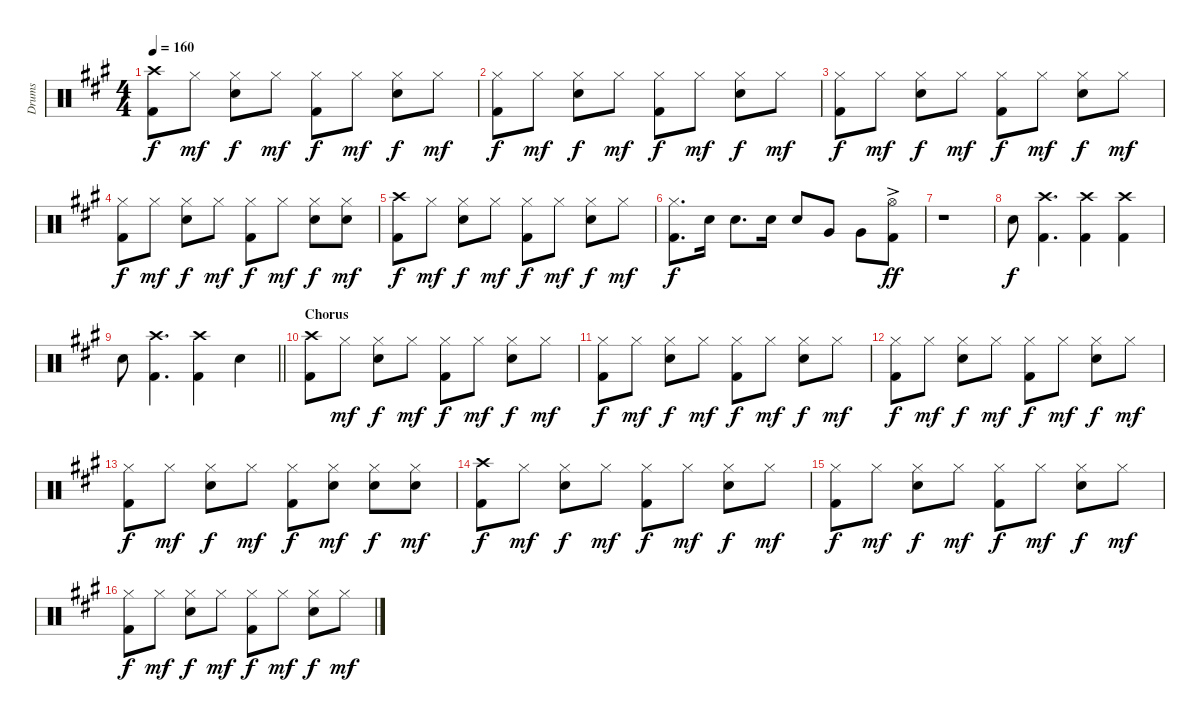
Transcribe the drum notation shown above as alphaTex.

\track ("Drums" "Drums") {instrument percussion}
\staff {score}
\articulation defaults
\ts (4 4)
\tempo 160
\clef neutral
\ks a
("Crash high (hit)" "Kick (hit) 2").8{dy f} "Hi-Hat (closed)".8{dy mf} ("Hi-Hat (closed)" "Electric Snare (hit)").8{dy f} "Hi-Hat (closed)".8{dy mf} ("Hi-Hat (closed)" "Kick (hit) 2").8{dy f} "Hi-Hat (closed)".8{dy mf} ("Hi-Hat (closed)" "Electric Snare (hit)").8{dy f} "Hi-Hat (closed)".8{dy mf} |
("Hi-Hat (closed)" "Kick (hit) 2").8{dy f} "Hi-Hat (closed)".8{dy mf} ("Hi-Hat (closed)" "Electric Snare (hit)").8{dy f} "Hi-Hat (closed)".8{dy mf} ("Hi-Hat (closed)" "Kick (hit) 2").8{dy f} "Hi-Hat (closed)".8{dy mf} ("Hi-Hat (closed)" "Electric Snare (hit)").8{dy f} "Hi-Hat (closed)".8{dy mf} |
("Hi-Hat (closed)" "Kick (hit) 2").8{dy f} "Hi-Hat (closed)".8{dy mf} ("Hi-Hat (closed)" "Electric Snare (hit)").8{dy f} "Hi-Hat (closed)".8{dy mf} ("Hi-Hat (closed)" "Kick (hit) 2").8{dy f} "Hi-Hat (closed)".8{dy mf} ("Hi-Hat (closed)" "Electric Snare (hit)").8{dy f} "Hi-Hat (closed)".8{dy mf} |
("Hi-Hat (closed)" "Kick (hit) 2").8{dy f} "Hi-Hat (closed)".8{dy mf} ("Hi-Hat (closed)" "Electric Snare (hit)").8{dy f} "Hi-Hat (closed)".8{dy mf} ("Hi-Hat (closed)" "Kick (hit) 2").8{dy f} "Hi-Hat (closed)".8{dy mf} ("Hi-Hat (closed)" "Electric Snare (hit)").8{dy f} ("Hi-Hat (closed)" "Electric Snare (hit)").8{dy mf} |
("Crash high (hit)" "Kick (hit) 2").8{dy f} "Hi-Hat (closed)".8{dy mf} ("Hi-Hat (closed)" "Electric Snare (hit)").8{dy f} "Hi-Hat (closed)".8{dy mf} ("Hi-Hat (closed)" "Kick (hit) 2").8{dy f} "Hi-Hat (closed)".8{dy mf} ("Hi-Hat (closed)" "Electric Snare (hit)").8{dy f} "Hi-Hat (closed)".8{dy mf} |
("Hi-Hat (closed)" "Kick (hit) 2").8{d dy f} "Electric Snare (hit)".16 "Electric Snare (hit)".8{d} "Electric Snare (hit)".16 "Electric Snare (hit)".8 "Very Low Tom (hit)".8 "Very Low Tom (hit)".8 ("Hi-Hat (open)"{ac} "Kick (hit) 2"{ac}).8{dy ff} |
r.1 |
"Electric Snare (hit)".8{dy f} ("Crash high (hit)" "Kick (hit) 2").4{d} ("Crash high (hit)" "Kick (hit) 2").4 ("Crash high (hit)" "Kick (hit) 2").4 |
\barLineRight lightlight "Electric Snare (hit)".8
("Crash high (hit)" "Kick (hit) 2").4{d} ("Crash high (hit)" "Kick (hit) 2").4 "Electric Snare (hit)".4 |
\section ("" "Chorus")
("Crash high (hit)" "Kick (hit) 2").8 "Hi-Hat (closed)".8{dy mf} ("Hi-Hat (closed)" "Electric Snare (hit)").8{dy f} "Hi-Hat (closed)".8{dy mf} ("Hi-Hat (closed)" "Kick (hit) 2").8{dy f} "Hi-Hat (closed)".8{dy mf} ("Hi-Hat (closed)" "Electric Snare (hit)").8{dy f} "Hi-Hat (closed)".8{dy mf} |
("Hi-Hat (closed)" "Kick (hit) 2").8{dy f} "Hi-Hat (closed)".8{dy mf} ("Hi-Hat (closed)" "Electric Snare (hit)").8{dy f} "Hi-Hat (closed)".8{dy mf} ("Hi-Hat (closed)" "Kick (hit) 2").8{dy f} "Hi-Hat (closed)".8{dy mf} ("Hi-Hat (closed)" "Electric Snare (hit)").8{dy f} "Hi-Hat (closed)".8{dy mf} |
("Hi-Hat (closed)" "Kick (hit) 2").8{dy f} "Hi-Hat (closed)".8{dy mf} ("Hi-Hat (closed)" "Electric Snare (hit)").8{dy f} "Hi-Hat (closed)".8{dy mf} ("Hi-Hat (closed)" "Kick (hit) 2").8{dy f} "Hi-Hat (closed)".8{dy mf} ("Hi-Hat (closed)" "Electric Snare (hit)").8{dy f} "Hi-Hat (closed)".8{dy mf} |
("Hi-Hat (closed)" "Kick (hit) 2").8{dy f} "Hi-Hat (closed)".8{dy mf} ("Hi-Hat (closed)" "Electric Snare (hit)").8{dy f} "Hi-Hat (closed)".8{dy mf} ("Hi-Hat (closed)" "Kick (hit) 2").8{dy f} ("Hi-Hat (closed)" "Electric Snare (hit)").8{dy mf} ("Hi-Hat (closed)" "Electric Snare (hit)").8{dy f} ("Hi-Hat (closed)" "Electric Snare (hit)").8{dy mf} |
("Crash high (hit)" "Kick (hit) 2").8{dy f} "Hi-Hat (closed)".8{dy mf} ("Hi-Hat (closed)" "Electric Snare (hit)").8{dy f} "Hi-Hat (closed)".8{dy mf} ("Hi-Hat (closed)" "Kick (hit) 2").8{dy f} "Hi-Hat (closed)".8{dy mf} ("Hi-Hat (closed)" "Electric Snare (hit)").8{dy f} "Hi-Hat (closed)".8{dy mf} |
("Hi-Hat (closed)" "Kick (hit) 2").8{dy f} "Hi-Hat (closed)".8{dy mf} ("Hi-Hat (closed)" "Electric Snare (hit)").8{dy f} "Hi-Hat (closed)".8{dy mf} ("Hi-Hat (closed)" "Kick (hit) 2").8{dy f} "Hi-Hat (closed)".8{dy mf} ("Hi-Hat (closed)" "Electric Snare (hit)").8{dy f} "Hi-Hat (closed)".8{dy mf} |
("Hi-Hat (closed)" "Kick (hit) 2").8{dy f} "Hi-Hat (closed)".8{dy mf} ("Hi-Hat (closed)" "Electric Snare (hit)").8{dy f} "Hi-Hat (closed)".8{dy mf} ("Hi-Hat (closed)" "Kick (hit) 2").8{dy f} "Hi-Hat (closed)".8{dy mf} ("Hi-Hat (closed)" "Electric Snare (hit)").8{dy f} "Hi-Hat (closed)".8{dy mf}
